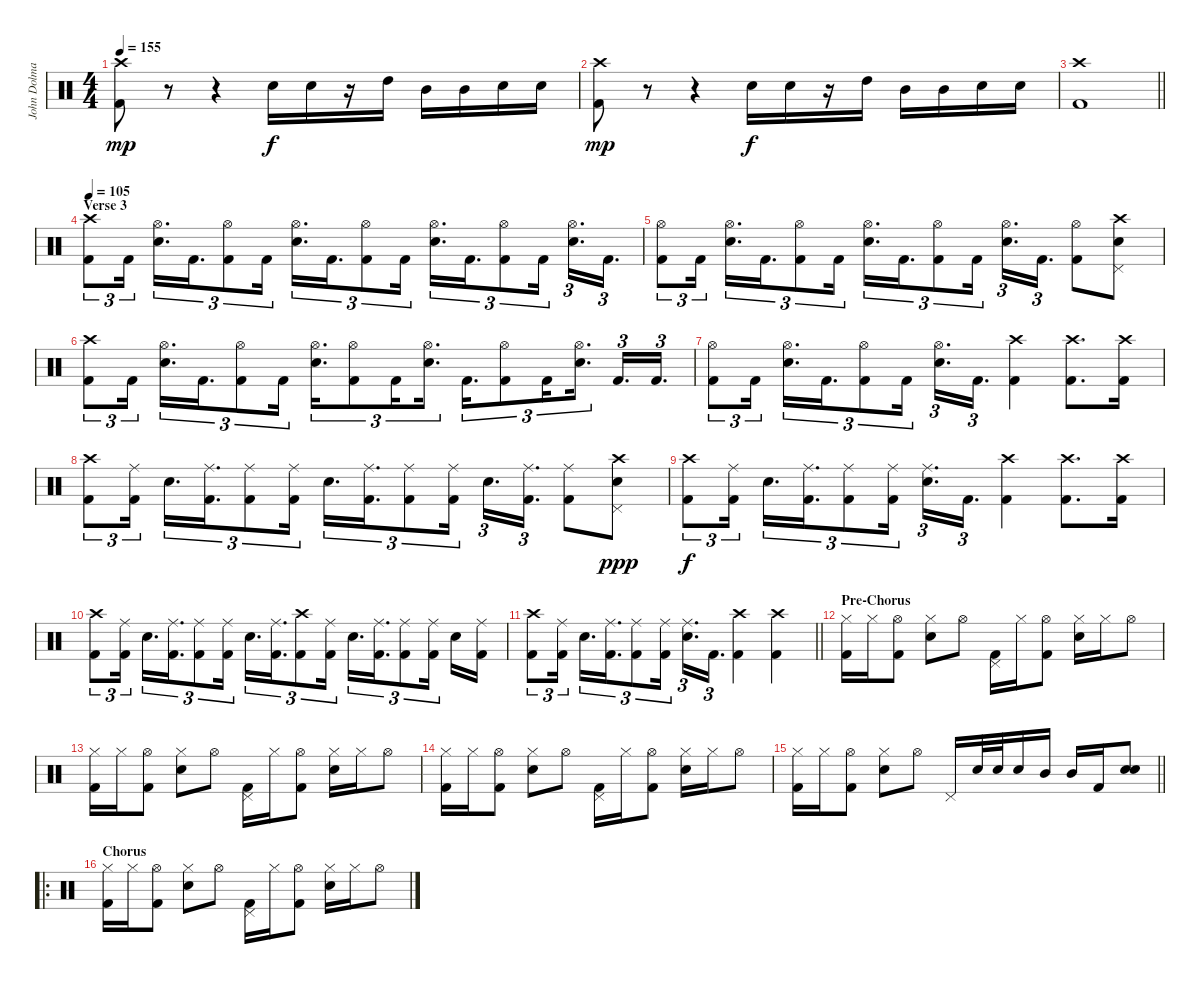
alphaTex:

\track ("John Dolmayan" "John Dolma") {instrument percussion}
\staff {score}
\articulation defaults
\ts (4 4)
\tempo 155
\clef neutral
\ks c
("Kick (hit) 2" "Crash high (hit)").8{dy mp} r.8{volume 0} r.4 "Electric Snare (hit)".16{dy f volume 13} "Electric Snare (hit)".16 r.16 "High Tom (hit)".16 "Mid Tom (hit)".16 "Mid Tom (hit)".16 "Electric Snare (hit)".16 "Electric Snare (hit)".16 |
("Kick (hit) 2" "Crash high (hit)").8{dy mp} r.8{volume 0} r.4 "Electric Snare (hit)".16{dy f volume 13} "Electric Snare (hit)".16 r.16 "High Tom (hit)".16 "Mid Tom (hit)".16 "Mid Tom (hit)".16 "Electric Snare (hit)".16 "Electric Snare (hit)".16 |
\barLineRight lightlight
("Kick (hit) 2" "Crash high (hit)").1 |
\section ("" "Verse 3")
\tempo 105
("Kick (hit) 2" "Crash high (hit)").8{tu (3 2)} "Kick (hit) 2".16{tu (3 2) beam splitsecondary} ("Hi-Hat (open)" "Electric Snare (hit)").16{d tu (3 2)} "Kick (hit) 2".16{d tu (3 2)} ("Kick (hit) 2" "Hi-Hat (open)").8{tu (3 2)} "Kick (hit) 2".16{tu (3 2) beam splitsecondary} ("Hi-Hat (open)" "Electric Snare (hit)").16{d tu (3 2)} "Kick (hit) 2".16{d tu (3 2)} ("Kick (hit) 2" "Hi-Hat (open)").8{tu (3 2)} "Kick (hit) 2".16{tu (3 2) beam splitsecondary} ("Hi-Hat (open)" "Electric Snare (hit)").16{d tu (3 2)} "Kick (hit) 2".16{d tu (3 2)} ("Kick (hit) 2" "Hi-Hat (open)").8{tu (3 2)} "Kick (hit) 2".16{tu (3 2) beam splitsecondary} ("Hi-Hat (open)" "Electric Snare (hit)").16{d tu (3 2)} "Kick (hit) 2".16{d tu (3 2)} |
("Kick (hit) 2" "Hi-Hat (open)").8{tu (3 2)} "Kick (hit) 2".16{tu (3 2) beam splitsecondary} ("Hi-Hat (open)" "Electric Snare (hit)").16{d tu (3 2)} "Kick (hit) 2".16{d tu (3 2)} ("Kick (hit) 2" "Hi-Hat (open)").8{tu (3 2)} "Kick (hit) 2".16{tu (3 2) beam splitsecondary} ("Hi-Hat (open)" "Electric Snare (hit)").16{d tu (3 2)} "Kick (hit) 2".16{d tu (3 2)} ("Kick (hit) 2" "Hi-Hat (open)").8{tu (3 2)} "Kick (hit) 2".16{tu (3 2) beam splitsecondary} ("Hi-Hat (open)" "Electric Snare (hit)").16{d tu (3 2)} "Kick (hit) 2".16{d tu (3 2)} ("Kick (hit) 2" "Hi-Hat (open)").8 ("Crash high (hit)" "Electric Snare (hit)" "Pedal Hi-Hat (hit)").8 |
("Kick (hit) 2" "Crash high (hit)").8{tu (3 2)} "Kick (hit) 2".16{tu (3 2) beam splitsecondary} ("Hi-Hat (open)" "Electric Snare (hit)").16{d tu (3 2)} "Kick (hit) 2".16{d tu (3 2)} ("Kick (hit) 2" "Hi-Hat (open)").8{tu (3 2)} "Kick (hit) 2".16{tu (3 2) beam splitsecondary} ("Hi-Hat (open)" "Electric Snare (hit)").16{d tu (3 2)} ("Kick (hit) 2" "Hi-Hat (open)").8{tu (3 2)} "Kick (hit) 2".16{tu (3 2) beam splitsecondary} ("Hi-Hat (open)" "Electric Snare (hit)").16{d tu (3 2)} "Kick (hit) 2".16{d tu (3 2)} ("Kick (hit) 2" "Hi-Hat (open)").8{tu (3 2)} "Kick (hit) 2".16{tu (3 2) beam splitsecondary} ("Hi-Hat (open)" "Electric Snare (hit)").16{d tu (3 2)} "Kick (hit) 2".16{d tu (3 2)} "Kick (hit) 2".16{d tu (3 2)} |
("Kick (hit) 2" "Hi-Hat (open)").8{tu (3 2)} "Kick (hit) 2".16{tu (3 2) beam splitsecondary} ("Hi-Hat (open)" "Electric Snare (hit)").16{d tu (3 2)} "Kick (hit) 2".16{d tu (3 2)} ("Kick (hit) 2" "Hi-Hat (open)").8{tu (3 2)} "Kick (hit) 2".16{tu (3 2) beam splitsecondary} ("Hi-Hat (open)" "Electric Snare (hit)").16{d tu (3 2)} "Kick (hit) 2".16{d tu (3 2)} ("Kick (hit) 2" "Crash high (hit)").4 ("Kick (hit) 2" "Crash high (hit)").8{d} ("Kick (hit) 2" "Crash high (hit)").16 |
("Kick (hit) 2" "Crash high (hit)").8{tu (3 2)} ("Kick (hit) 2" "Ride (middle)").16{tu (3 2) beam splitsecondary} "Electric Snare (hit)".16{d tu (3 2)} ("Kick (hit) 2" "Ride (middle)").16{d tu (3 2)} ("Kick (hit) 2" "Ride (middle)").8{tu (3 2)} ("Kick (hit) 2" "Ride (middle)").16{tu (3 2) beam splitsecondary} "Electric Snare (hit)".16{d tu (3 2)} ("Kick (hit) 2" "Ride (middle)").16{d tu (3 2)} ("Kick (hit) 2" "Ride (middle)").8{tu (3 2)} ("Kick (hit) 2" "Ride (middle)").16{tu (3 2) beam splitsecondary} "Electric Snare (hit)".16{d tu (3 2)} ("Kick (hit) 2" "Ride (middle)").16{d tu (3 2)} ("Kick (hit) 2" "Ride (middle)").8 ("Crash high (hit)" "Electric Snare (hit)" "Pedal Hi-Hat (hit)").8{dy ppp} |
("Kick (hit) 2" "Crash high (hit)").8{tu (3 2) dy f} ("Kick (hit) 2" "Ride (middle)").16{tu (3 2) beam splitsecondary} "Electric Snare (hit)".16{d tu (3 2)} ("Kick (hit) 2" "Ride (middle)").16{d tu (3 2)} ("Kick (hit) 2" "Ride (middle)").8{tu (3 2)} ("Kick (hit) 2" "Ride (middle)").16{tu (3 2) beam splitsecondary} ("Electric Snare (hit)" "Ride (middle)").16{d tu (3 2)} "Kick (hit) 2".16{d tu (3 2)} ("Kick (hit) 2" "Crash high (hit)").4 ("Kick (hit) 2" "Crash high (hit)").8{d} ("Kick (hit) 2" "Crash high (hit)").16 |
("Kick (hit) 2" "Crash high (hit)").8{tu (3 2)} ("Kick (hit) 2" "Ride (middle)").16{tu (3 2) beam splitsecondary} "Electric Snare (hit)".16{d tu (3 2)} ("Kick (hit) 2" "Ride (middle)").16{d tu (3 2)} ("Kick (hit) 2" "Ride (middle)").8{tu (3 2)} ("Kick (hit) 2" "Ride (middle)").16{tu (3 2) beam splitsecondary} "Electric Snare (hit)".16{d tu (3 2)} ("Kick (hit) 2" "Ride (middle)").16{d tu (3 2)} ("Kick (hit) 2" "Crash high (hit)").8{tu (3 2)} ("Kick (hit) 2" "Ride (middle)").16{tu (3 2) beam splitsecondary} "Electric Snare (hit)".16{d tu (3 2)} ("Kick (hit) 2" "Ride (middle)").16{d tu (3 2)} ("Kick (hit) 2" "Ride (middle)").8{tu (3 2)} ("Kick (hit) 2" "Ride (middle)").16{tu (3 2) beam splitsecondary} "Electric Snare (hit)".16 ("Kick (hit) 2" "Ride (middle)").16 |
\barLineRight lightlight
("Kick (hit) 2" "Crash high (hit)").8{tu (3 2)} ("Kick (hit) 2" "Ride (middle)").16{tu (3 2) beam splitsecondary} "Electric Snare (hit)".16{d tu (3 2)} ("Kick (hit) 2" "Ride (middle)").16{d tu (3 2)} ("Kick (hit) 2" "Ride (middle)").8{tu (3 2)} ("Kick (hit) 2" "Ride (middle)").16{tu (3 2) beam splitsecondary} ("Electric Snare (hit)" "Ride (middle)").16{d tu (3 2)} "Kick (hit) 2".16{d tu (3 2)} ("Kick (hit) 2" "Crash high (hit)").4 ("Kick (hit) 2" "Crash high (hit)").4 |
\section ("" "Pre-Chorus")
("Kick (hit) 2" "Hi-Hat (closed)").16 "Hi-Hat (closed)".16 ("Kick (hit) 2" "Hi-Hat (open)").8 ("Electric Snare (hit)" "Hi-Hat (closed)").8 "Hi-Hat (open)".8 ("Kick (hit) 2" "Pedal Hi-Hat (hit)").16 "Hi-Hat (closed)".16 ("Kick (hit) 2" "Hi-Hat (open)").8 ("Electric Snare (hit)" "Hi-Hat (closed)").16 "Hi-Hat (closed)".16 "Hi-Hat (open)".8 |
("Kick (hit) 2" "Hi-Hat (closed)").16 "Hi-Hat (closed)".16 ("Kick (hit) 2" "Hi-Hat (open)").8 ("Electric Snare (hit)" "Hi-Hat (closed)").8 "Hi-Hat (open)".8 ("Kick (hit) 2" "Pedal Hi-Hat (hit)").16 "Hi-Hat (closed)".16 ("Kick (hit) 2" "Hi-Hat (open)").8 ("Electric Snare (hit)" "Hi-Hat (closed)").16 "Hi-Hat (closed)".16 "Hi-Hat (open)".8 |
("Kick (hit) 2" "Hi-Hat (closed)").16 "Hi-Hat (closed)".16 ("Kick (hit) 2" "Hi-Hat (open)").8 ("Electric Snare (hit)" "Hi-Hat (closed)").8 "Hi-Hat (open)".8 ("Kick (hit) 2" "Pedal Hi-Hat (hit)").16 "Hi-Hat (closed)".16 ("Kick (hit) 2" "Hi-Hat (open)").8 ("Electric Snare (hit)" "Hi-Hat (closed)").16 "Hi-Hat (closed)".16 "Hi-Hat (open)".8 |
\barLineRight lightlight
("Kick (hit) 2" "Hi-Hat (closed)").16 "Hi-Hat (closed)".16 ("Kick (hit) 2" "Hi-Hat (open)").8 ("Electric Snare (hit)" "Hi-Hat (closed)").8 "Hi-Hat (open)".8 "Pedal Hi-Hat (hit)".16 "Electric Snare (hit)".32 "Electric Snare (hit)".32 "Electric Snare (hit)".16 "Mid Tom (hit)".16 "Mid Tom (hit)".16 "Kick (hit) 2".16 ("Electric Snare (hit)" "Electric Snare (hit)").8 |
\ro
\section ("" "Chorus")
("Kick (hit) 2" "Hi-Hat (closed)").16 "Hi-Hat (closed)".16 ("Kick (hit) 2" "Hi-Hat (open)").8 ("Electric Snare (hit)" "Hi-Hat (closed)").8 "Hi-Hat (open)".8 ("Kick (hit) 2" "Pedal Hi-Hat (hit)").16 "Hi-Hat (closed)".16 ("Kick (hit) 2" "Hi-Hat (open)").8 ("Electric Snare (hit)" "Hi-Hat (closed)").16 "Hi-Hat (closed)".16 "Hi-Hat (open)".8
